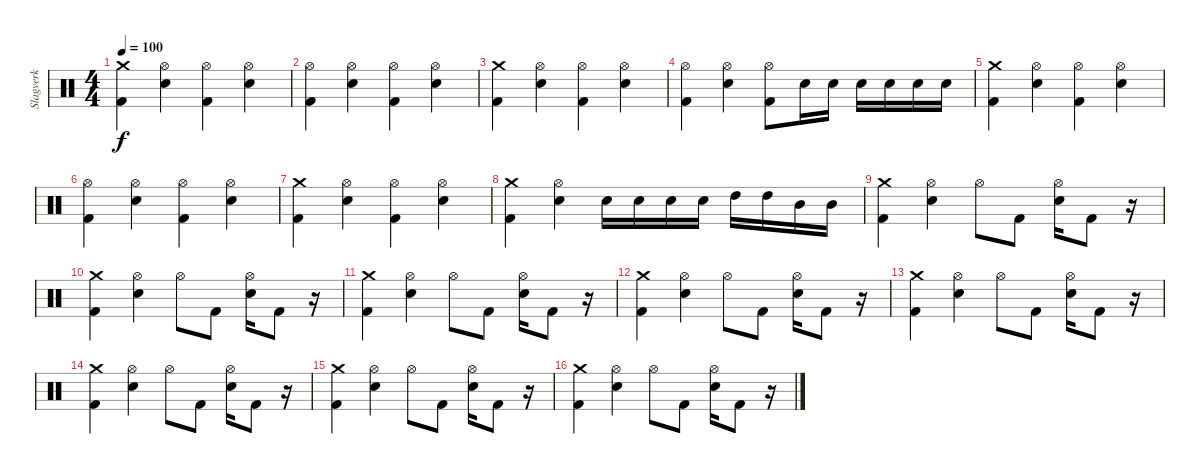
\track ("Slagverk" "Slagverk") {instrument percussion}
\staff {score}
\articulation defaults
\ts (4 4)
\tempo 100
\clef neutral
\ks c
("Crash medium (hit)" "Kick (hit) 2").4{dy f} ("Hi-Hat (open)" "Electric Snare (hit)").4 ("Hi-Hat (open)" "Kick (hit) 2").4 ("Hi-Hat (open)" "Electric Snare (hit)").4 |
("Hi-Hat (open)" "Kick (hit) 2").4 ("Hi-Hat (open)" "Electric Snare (hit)").4 ("Hi-Hat (open)" "Kick (hit) 2").4 ("Hi-Hat (open)" "Electric Snare (hit)").4 |
("Crash medium (hit)" "Kick (hit) 2").4 ("Hi-Hat (open)" "Electric Snare (hit)").4 ("Hi-Hat (open)" "Kick (hit) 2").4 ("Hi-Hat (open)" "Electric Snare (hit)").4 |
("Hi-Hat (open)" "Kick (hit) 2").4 ("Hi-Hat (open)" "Electric Snare (hit)").4 ("Hi-Hat (open)" "Kick (hit) 2").8 "Electric Snare (hit)".16 "Electric Snare (hit)".16 "Electric Snare (hit)".16 "Electric Snare (hit)".16 "Electric Snare (hit)".16 "Electric Snare (hit)".16 |
("Crash medium (hit)" "Kick (hit) 2").4 ("Hi-Hat (open)" "Electric Snare (hit)").4 ("Hi-Hat (open)" "Kick (hit) 2").4 ("Hi-Hat (open)" "Electric Snare (hit)").4 |
("Hi-Hat (open)" "Kick (hit) 2").4 ("Hi-Hat (open)" "Electric Snare (hit)").4 ("Hi-Hat (open)" "Kick (hit) 2").4 ("Hi-Hat (open)" "Electric Snare (hit)").4 |
("Crash medium (hit)" "Kick (hit) 2").4 ("Hi-Hat (open)" "Electric Snare (hit)").4 ("Hi-Hat (open)" "Kick (hit) 2").4 ("Hi-Hat (open)" "Electric Snare (hit)").4 |
("Crash medium (hit)" "Kick (hit) 2").4 ("Hi-Hat (open)" "Electric Snare (hit)").4 "Electric Snare (hit)".16 "Electric Snare (hit)".16 "Electric Snare (hit)".16 "Electric Snare (hit)".16 "High Tom (hit)".16 "High Tom (hit)".16 "Mid Tom (hit)".16 "Mid Tom (hit)".16 |
("Crash medium (hit)" "Kick (hit) 2").4 ("Hi-Hat (open)" "Electric Snare (hit)").4 "Hi-Hat (open)".8 "Kick (hit) 2".8 ("Hi-Hat (open)" "Electric Snare (hit)").16 "Kick (hit) 2".8 r.16 |
("Crash medium (hit)" "Kick (hit) 2").4 ("Hi-Hat (open)" "Electric Snare (hit)").4 "Hi-Hat (open)".8 "Kick (hit) 2".8 ("Hi-Hat (open)" "Electric Snare (hit)").16 "Kick (hit) 2".8 r.16 |
("Crash medium (hit)" "Kick (hit) 2").4 ("Hi-Hat (open)" "Electric Snare (hit)").4 "Hi-Hat (open)".8 "Kick (hit) 2".8 ("Hi-Hat (open)" "Electric Snare (hit)").16 "Kick (hit) 2".8 r.16 |
("Crash medium (hit)" "Kick (hit) 2").4 ("Hi-Hat (open)" "Electric Snare (hit)").4 "Hi-Hat (open)".8 "Kick (hit) 2".8 ("Hi-Hat (open)" "Electric Snare (hit)").16 "Kick (hit) 2".8 r.16 |
("Crash medium (hit)" "Kick (hit) 2").4 ("Hi-Hat (open)" "Electric Snare (hit)").4 "Hi-Hat (open)".8 "Kick (hit) 2".8 ("Hi-Hat (open)" "Electric Snare (hit)").16 "Kick (hit) 2".8 r.16 |
("Crash medium (hit)" "Kick (hit) 2").4 ("Hi-Hat (open)" "Electric Snare (hit)").4 "Hi-Hat (open)".8 "Kick (hit) 2".8 ("Hi-Hat (open)" "Electric Snare (hit)").16 "Kick (hit) 2".8 r.16 |
("Crash medium (hit)" "Kick (hit) 2").4 ("Hi-Hat (open)" "Electric Snare (hit)").4 "Hi-Hat (open)".8 "Kick (hit) 2".8 ("Hi-Hat (open)" "Electric Snare (hit)").16 "Kick (hit) 2".8 r.16 |
("Crash medium (hit)" "Kick (hit) 2").4 ("Hi-Hat (open)" "Electric Snare (hit)").4 "Hi-Hat (open)".8 "Kick (hit) 2".8 ("Hi-Hat (open)" "Electric Snare (hit)").16 "Kick (hit) 2".8 r.16
